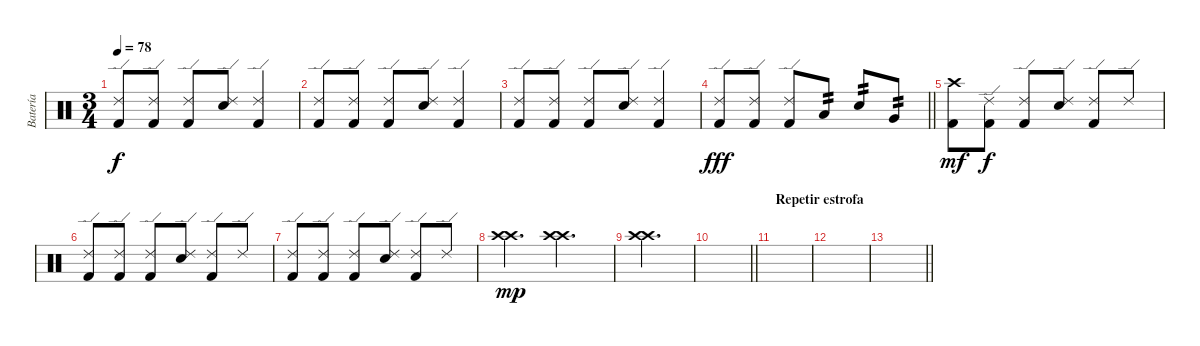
\track ("Batería" "Batería") {instrument percussion}
\staff {score}
\articulation defaults
\ts (3 4)
\tempo 78
\clef neutral
\ks c
("Ride (edge) 2" "Kick (hit) 2").8{dy f} ("Ride (edge) 2" "Kick (hit) 2").8 ("Ride (edge) 2" "Kick (hit) 2").8 ("Ride (edge) 2" "Electric Snare (hit)").8 ("Ride (edge) 2" "Kick (hit) 2").4 |
("Ride (edge) 2" "Kick (hit) 2").8 ("Ride (edge) 2" "Kick (hit) 2").8 ("Ride (edge) 2" "Kick (hit) 2").8 ("Ride (edge) 2" "Electric Snare (hit)").8 ("Ride (edge) 2" "Kick (hit) 2").4 |
("Ride (edge) 2" "Kick (hit) 2").8 ("Ride (edge) 2" "Kick (hit) 2").8 ("Ride (edge) 2" "Kick (hit) 2").8 ("Ride (edge) 2" "Electric Snare (hit)").8 ("Ride (edge) 2" "Kick (hit) 2").4 |
\barLineRight lightlight
("Ride (edge) 2" "Kick (hit) 2").8{dy fff} ("Ride (edge) 2" "Kick (hit) 2").8 ("Ride (edge) 2" "Kick (hit) 2").8 "Low Tom (hit)".8{tp 2} "Electric Snare (hit)".8{tp 2} "Very Low Tom (hit)".8{tp 2} |
("Crash high (hit)" "Kick (hit) 2").8{dy mf} ("Ride (edge) 2" "Kick (hit) 2").8{dy f} ("Ride (edge) 2" "Kick (hit) 2").8 ("Ride (edge) 2" "Electric Snare (hit)").8 ("Ride (edge) 2" "Kick (hit) 2").8 "Ride (edge) 2".8 |
("Ride (edge) 2" "Kick (hit) 2").8 ("Ride (edge) 2" "Kick (hit) 2").8 ("Ride (edge) 2" "Kick (hit) 2").8 ("Ride (edge) 2" "Electric Snare (hit)").8 ("Ride (edge) 2" "Kick (hit) 2").8 "Ride (edge) 2".8 |
("Ride (edge) 2" "Kick (hit) 2").8 ("Ride (edge) 2" "Kick (hit) 2").8 ("Ride (edge) 2" "Kick (hit) 2").8 ("Ride (edge) 2" "Electric Snare (hit)").8 ("Ride (edge) 2" "Kick (hit) 2").8 "Ride (edge) 2".8 |
("Crash high (hit)" "Crash high (hit)").4{d dy mp} ("Crash high (hit)" "Crash high (hit)").4{d} |
("Crash high (hit)" "Crash high (hit)").2{d} |
\barLineRight lightlight
|
\section ("" "Repetir estrofa")
|
|
\barLineRight lightlight
